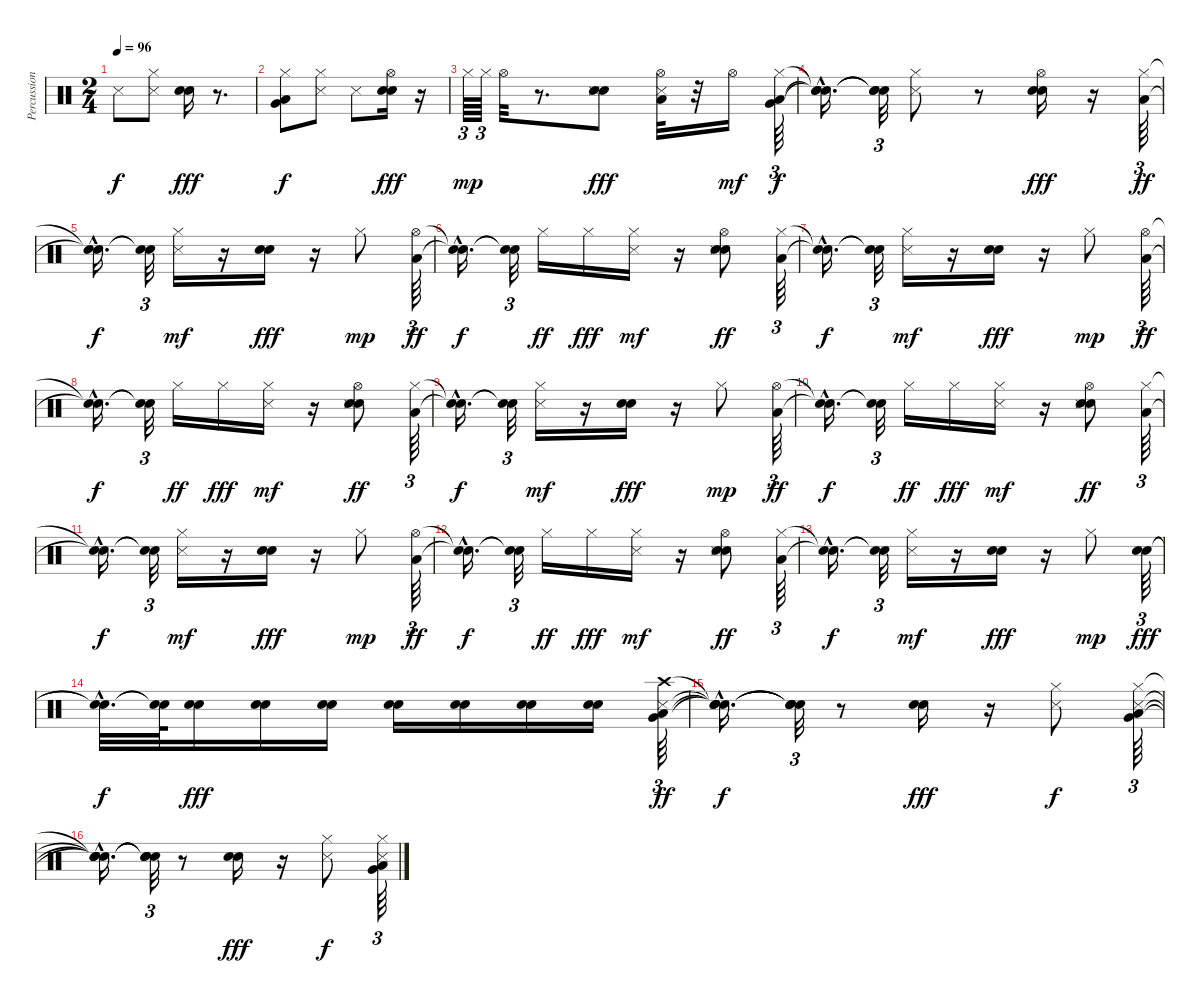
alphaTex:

\track ("Percussion" "Percussion") {instrument percussion}
\staff {score}
\articulation defaults
\ts (2 4)
\tempo 96
\clef neutral
\ks c "Snare (side stick) 3".8{dy f}
("Hi-Hat (closed)" "Snare (side stick) 3").8 ("Electric Snare (hit)" "Snare (hit) 2").16{dy fff} r.8{d} |
("Hi-Hat (closed)" "Very Low Tom (hit)" "Low Floor Tom (hit)").8{dy f} ("Hi-Hat (closed)" "Snare (side stick) 3").8 "Snare (side stick) 3".8 ("Hi-Hat (open)" "Electric Snare (hit)" "Snare (hit) 2").16{dy fff} r.16 |
"Hi-Hat (closed)".64{tu (3 2) dy mp} "Hi-Hat (closed)".64{tu (3 2)} "Hi-Hat (open)".32 r.8{d} ("Electric Snare (hit)" "Snare (side stick) 3" "Snare (hit) 2").8{dy fff} ("Hi-Hat (open)" "Low Floor Tom (hit)" "Snare (side stick) 3").32 r.32 "Hi-Hat (open)".16{dy mf} ("Hi-Hat (closed)" "Very Low Tom (hit)" "Low Floor Tom (hit)").64{tu (3 2) dy f} |
("Snare (hit)"{hac t} "Snare (hit)"{hac t} "Snare (hit)"{hac t}).16{d} ("Snare (hit)"{t} "Snare (hit)"{t} "Snare (hit)"{t}).32{tu (3 2)} ("Hi-Hat (closed)" "Snare (side stick) 3").8 r.8 ("Hi-Hat (open)" "Electric Snare (hit)" "Snare (hit) 2").16{dy fff} r.16 ("Hi-Hat (closed)" "Low Floor Tom (hit)").64{tu (3 2) dy ff} |
("Snare (hit)"{hac t} "Snare (hit)"{hac t}).16{d dy f} ("Snare (hit)"{t} "Snare (hit)"{t}).32{tu (3 2)} ("Hi-Hat (closed)" "Snare (side stick) 3").16{dy mf} r.16 ("Electric Snare (hit)" "Snare (hit) 2").16{dy fff} r.16 "Hi-Hat (closed)".8{dy mp} ("Hi-Hat (open)" "Low Floor Tom (hit)").64{tu (3 2) dy ff} |
("Snare (hit)"{hac t} "Snare (hit)"{hac t}).16{d dy f} ("Snare (hit)"{t} "Snare (hit)"{t}).32{tu (3 2)} "Hi-Hat (closed)".16{dy ff} "Hi-Hat (closed)".16{dy fff} ("Hi-Hat (closed)" "Snare (side stick) 3").16{dy mf} r.16 ("Hi-Hat (open)" "Snare (hit) 2" "Electric Snare (hit)" "Snare (side stick) 3").8{dy ff} ("Hi-Hat (closed)" "Low Floor Tom (hit)").64{tu (3 2)} |
("Snare (hit)"{hac t} "Snare (hit)"{hac t}).16{d dy f} ("Snare (hit)"{t} "Snare (hit)"{t}).32{tu (3 2)} ("Hi-Hat (closed)" "Snare (side stick) 3").16{dy mf} r.16 ("Electric Snare (hit)" "Snare (hit) 2").16{dy fff} r.16 "Hi-Hat (closed)".8{dy mp} ("Hi-Hat (open)" "Low Floor Tom (hit)").64{tu (3 2) dy ff} |
("Snare (hit)"{hac t} "Snare (hit)"{hac t}).16{d dy f} ("Snare (hit)"{t} "Snare (hit)"{t}).32{tu (3 2)} "Hi-Hat (closed)".16{dy ff} "Hi-Hat (closed)".16{dy fff} ("Hi-Hat (closed)" "Snare (side stick) 3").16{dy mf} r.16 ("Hi-Hat (open)" "Snare (hit) 2" "Electric Snare (hit)" "Snare (side stick) 3").8{dy ff} ("Hi-Hat (closed)" "Low Floor Tom (hit)").64{tu (3 2)} |
("Snare (hit)"{hac t} "Snare (hit)"{hac t}).16{d dy f} ("Snare (hit)"{t} "Snare (hit)"{t}).32{tu (3 2)} ("Hi-Hat (closed)" "Snare (side stick) 3").16{dy mf} r.16 ("Electric Snare (hit)" "Snare (hit) 2").16{dy fff} r.16 "Hi-Hat (closed)".8{dy mp} ("Hi-Hat (open)" "Low Floor Tom (hit)").64{tu (3 2) dy ff} |
("Snare (hit)"{hac t} "Snare (hit)"{hac t}).16{d dy f} ("Snare (hit)"{t} "Snare (hit)"{t}).32{tu (3 2)} "Hi-Hat (closed)".16{dy ff} "Hi-Hat (closed)".16{dy fff} ("Hi-Hat (closed)" "Snare (side stick) 3").16{dy mf} r.16 ("Hi-Hat (open)" "Snare (hit) 2" "Electric Snare (hit)" "Snare (side stick) 3").8{dy ff} ("Hi-Hat (closed)" "Low Floor Tom (hit)").64{tu (3 2)} |
("Snare (hit)"{hac t} "Snare (hit)"{hac t}).16{d dy f} ("Snare (hit)"{t} "Snare (hit)"{t}).32{tu (3 2)} ("Hi-Hat (closed)" "Snare (side stick) 3").16{dy mf} r.16 ("Electric Snare (hit)" "Snare (hit) 2").16{dy fff} r.16 "Hi-Hat (closed)".8{dy mp} ("Hi-Hat (open)" "Low Floor Tom (hit)").64{tu (3 2) dy ff} |
("Snare (hit)"{hac t} "Snare (hit)"{hac t}).16{d dy f} ("Snare (hit)"{t} "Snare (hit)"{t}).32{tu (3 2)} "Hi-Hat (closed)".16{dy ff} "Hi-Hat (closed)".16{dy fff} ("Hi-Hat (closed)" "Snare (side stick) 3").16{dy mf} r.16 ("Hi-Hat (open)" "Snare (hit) 2" "Electric Snare (hit)" "Snare (side stick) 3").8{dy ff} ("Hi-Hat (closed)" "Low Floor Tom (hit)").64{tu (3 2)} |
("Snare (hit)"{hac t} "Snare (hit)"{hac t}).16{d dy f} ("Snare (hit)"{t} "Snare (hit)"{t}).32{tu (3 2)} ("Hi-Hat (closed)" "Snare (side stick) 3").16{dy mf} r.16 ("Electric Snare (hit)" "Snare (hit) 2").16{dy fff} r.16 "Hi-Hat (closed)".8{dy mp} ("Electric Snare (hit)" "Snare (hit) 2").64{tu (3 2) dy fff} |
("Snare (hit)"{hac t} "Snare (hit)"{hac t}).32{d dy f} ("Snare (hit)"{t} "Snare (hit)"{t}).64 ("Electric Snare (hit)" "Snare (hit) 2").16{dy fff} ("Electric Snare (hit)" "Snare (hit) 2").16 ("Electric Snare (hit)" "Snare (hit) 2").16 ("Electric Snare (hit)" "Snare (hit) 2").16 ("Electric Snare (hit)" "Snare (hit) 2").16 ("Electric Snare (hit)" "Snare (hit) 2").16 ("Electric Snare (hit)" "Snare (hit) 2").16 ("Crash high (hit)" "Snare (side stick) 3" "Very Low Tom (hit)" "Low Floor Tom (hit)").64{tu (3 2) dy ff} |
("Snare (hit)"{hac t} "Snare (hit)"{hac t} "Snare (hit)"{hac t} "Snare (hit)"{hac t}).16{d dy f} ("Snare (hit)"{t} "Snare (hit)"{t} "Snare (hit)"{t} "Snare (hit)"{t}).32{tu (3 2)} r.8 ("Electric Snare (hit)" "Snare (hit) 2").16{dy fff} r.16 ("Hi-Hat (closed)" "Snare (side stick) 3").8{dy f} ("Hi-Hat (closed)" "Snare (side stick) 3" "Very Low Tom (hit)" "Low Floor Tom (hit)").64{tu (3 2)} |
("Snare (hit)"{hac t} "Snare (hit)"{hac t} "Snare (hit)"{hac t} "Snare (hit)"{hac t}).16{d} ("Snare (hit)"{t} "Snare (hit)"{t} "Snare (hit)"{t} "Snare (hit)"{t}).32{tu (3 2)} r.8 ("Electric Snare (hit)" "Snare (hit) 2").16{dy fff} r.16 ("Hi-Hat (closed)" "Snare (side stick) 3").8{dy f} ("Hi-Hat (closed)" "Snare (side stick) 3" "Very Low Tom (hit)" "Low Floor Tom (hit)").64{tu (3 2)}
